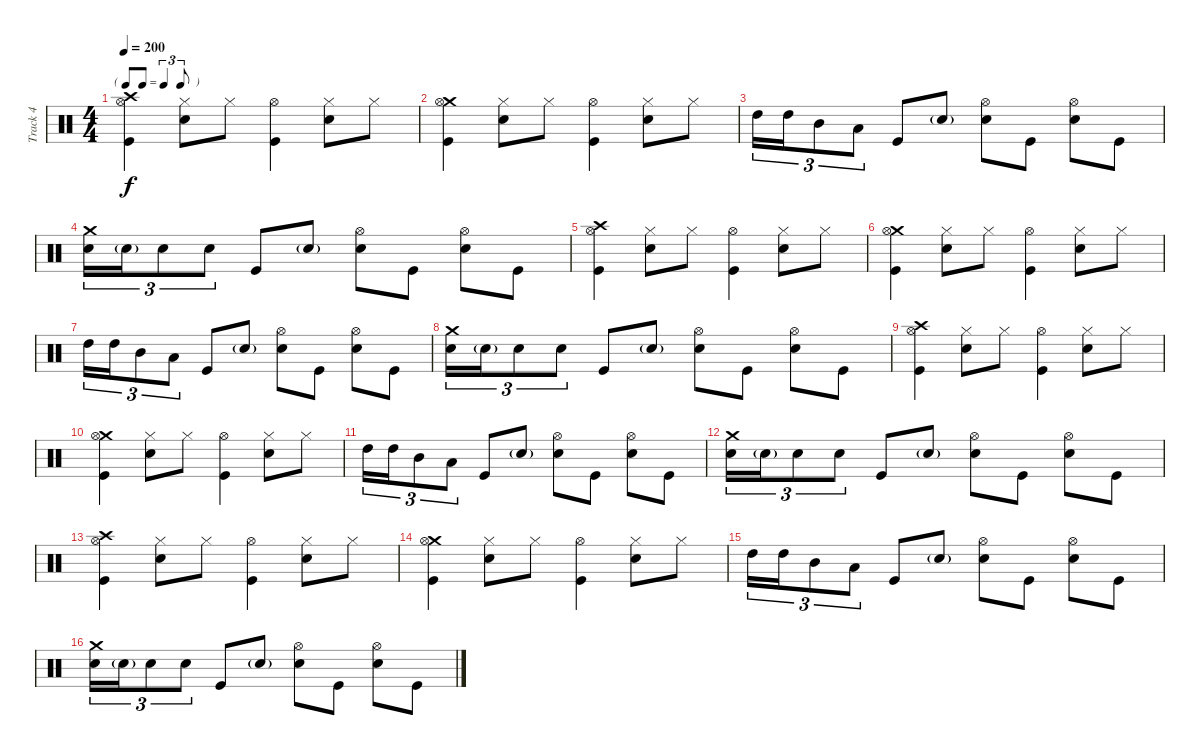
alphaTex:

\track ("Track 4" "Track 4") {instrument percussion}
\staff {score}
\articulation defaults
\ts (4 4)
\tf triplet8th
\tempo 200
\clef neutral
\ks c
("Crash high (hit)" "Hi-Hat (open)" "Kick (hit)").4{dy f} ("Hi-Hat (closed)" "Electric Snare (hit)").8 "Hi-Hat (closed)".8 ("Hi-Hat (open)" "Kick (hit)").4 ("Hi-Hat (closed)" "Electric Snare (hit)").8 "Hi-Hat (closed)".8 |
("Crash medium (hit)" "Hi-Hat (open)" "Kick (hit)").4 ("Hi-Hat (closed)" "Electric Snare (hit)").8 "Hi-Hat (closed)".8 ("Hi-Hat (open)" "Kick (hit)").4 ("Hi-Hat (closed)" "Electric Snare (hit)").8 "Hi-Hat (closed)".8 |
"High Tom (hit)".16{tu (3 2)} "High Tom (hit)".16{tu (3 2)} "Mid Tom (hit)".8{tu (3 2)} "Low Tom (hit)".8{tu (3 2)} "Kick (hit)".8 "Electric Snare (hit)"{g}.8 ("Hi-Hat (open)" "Electric Snare (hit)").8 "Kick (hit)".8 ("Hi-Hat (open)" "Electric Snare (hit)").8 "Kick (hit)".8 |
("Crash medium (hit)" "Electric Snare (hit)").16{tu (3 2)} "Electric Snare (hit)"{g}.16{tu (3 2)} "Electric Snare (hit)".8{tu (3 2)} "Electric Snare (hit)".8{tu (3 2)} "Kick (hit)".8 "Electric Snare (hit)"{g}.8 ("Hi-Hat (open)" "Electric Snare (hit)").8 "Kick (hit)".8 ("Hi-Hat (open)" "Electric Snare (hit)").8 "Kick (hit)".8 |
("Crash high (hit)" "Hi-Hat (open)" "Kick (hit)").4 ("Hi-Hat (closed)" "Electric Snare (hit)").8 "Hi-Hat (closed)".8 ("Hi-Hat (open)" "Kick (hit)").4 ("Hi-Hat (closed)" "Electric Snare (hit)").8 "Hi-Hat (closed)".8 |
("Crash medium (hit)" "Hi-Hat (open)" "Kick (hit)").4 ("Hi-Hat (closed)" "Electric Snare (hit)").8 "Hi-Hat (closed)".8 ("Hi-Hat (open)" "Kick (hit)").4 ("Hi-Hat (closed)" "Electric Snare (hit)").8 "Hi-Hat (closed)".8 |
"High Tom (hit)".16{tu (3 2)} "High Tom (hit)".16{tu (3 2)} "Mid Tom (hit)".8{tu (3 2)} "Low Tom (hit)".8{tu (3 2)} "Kick (hit)".8 "Electric Snare (hit)"{g}.8 ("Hi-Hat (open)" "Electric Snare (hit)").8 "Kick (hit)".8 ("Hi-Hat (open)" "Electric Snare (hit)").8 "Kick (hit)".8 |
("Crash medium (hit)" "Electric Snare (hit)").16{tu (3 2)} "Electric Snare (hit)"{g}.16{tu (3 2)} "Electric Snare (hit)".8{tu (3 2)} "Electric Snare (hit)".8{tu (3 2)} "Kick (hit)".8 "Electric Snare (hit)"{g}.8 ("Hi-Hat (open)" "Electric Snare (hit)").8 "Kick (hit)".8 ("Hi-Hat (open)" "Electric Snare (hit)").8 "Kick (hit)".8 |
("Crash high (hit)" "Hi-Hat (open)" "Kick (hit)").4 ("Hi-Hat (closed)" "Electric Snare (hit)").8 "Hi-Hat (closed)".8 ("Hi-Hat (open)" "Kick (hit)").4 ("Hi-Hat (closed)" "Electric Snare (hit)").8 "Hi-Hat (closed)".8 |
("Crash medium (hit)" "Hi-Hat (open)" "Kick (hit)").4 ("Hi-Hat (closed)" "Electric Snare (hit)").8 "Hi-Hat (closed)".8 ("Hi-Hat (open)" "Kick (hit)").4 ("Hi-Hat (closed)" "Electric Snare (hit)").8 "Hi-Hat (closed)".8 |
"High Tom (hit)".16{tu (3 2)} "High Tom (hit)".16{tu (3 2)} "Mid Tom (hit)".8{tu (3 2)} "Low Tom (hit)".8{tu (3 2)} "Kick (hit)".8 "Electric Snare (hit)"{g}.8 ("Hi-Hat (open)" "Electric Snare (hit)").8 "Kick (hit)".8 ("Hi-Hat (open)" "Electric Snare (hit)").8 "Kick (hit)".8 |
("Crash medium (hit)" "Electric Snare (hit)").16{tu (3 2)} "Electric Snare (hit)"{g}.16{tu (3 2)} "Electric Snare (hit)".8{tu (3 2)} "Electric Snare (hit)".8{tu (3 2)} "Kick (hit)".8 "Electric Snare (hit)"{g}.8 ("Hi-Hat (open)" "Electric Snare (hit)").8 "Kick (hit)".8 ("Hi-Hat (open)" "Electric Snare (hit)").8 "Kick (hit)".8 |
("Crash high (hit)" "Hi-Hat (open)" "Kick (hit)").4 ("Hi-Hat (closed)" "Electric Snare (hit)").8 "Hi-Hat (closed)".8 ("Hi-Hat (open)" "Kick (hit)").4 ("Hi-Hat (closed)" "Electric Snare (hit)").8 "Hi-Hat (closed)".8 |
("Crash medium (hit)" "Hi-Hat (open)" "Kick (hit)").4 ("Hi-Hat (closed)" "Electric Snare (hit)").8 "Hi-Hat (closed)".8 ("Hi-Hat (open)" "Kick (hit)").4 ("Hi-Hat (closed)" "Electric Snare (hit)").8 "Hi-Hat (closed)".8 |
"High Tom (hit)".16{tu (3 2)} "High Tom (hit)".16{tu (3 2)} "Mid Tom (hit)".8{tu (3 2)} "Low Tom (hit)".8{tu (3 2)} "Kick (hit)".8 "Electric Snare (hit)"{g}.8 ("Hi-Hat (open)" "Electric Snare (hit)").8 "Kick (hit)".8 ("Hi-Hat (open)" "Electric Snare (hit)").8 "Kick (hit)".8 |
("Crash medium (hit)" "Electric Snare (hit)").16{tu (3 2)} "Electric Snare (hit)"{g}.16{tu (3 2)} "Electric Snare (hit)".8{tu (3 2)} "Electric Snare (hit)".8{tu (3 2)} "Kick (hit)".8 "Electric Snare (hit)"{g}.8 ("Hi-Hat (open)" "Electric Snare (hit)").8 "Kick (hit)".8 ("Hi-Hat (open)" "Electric Snare (hit)").8 "Kick (hit)".8
